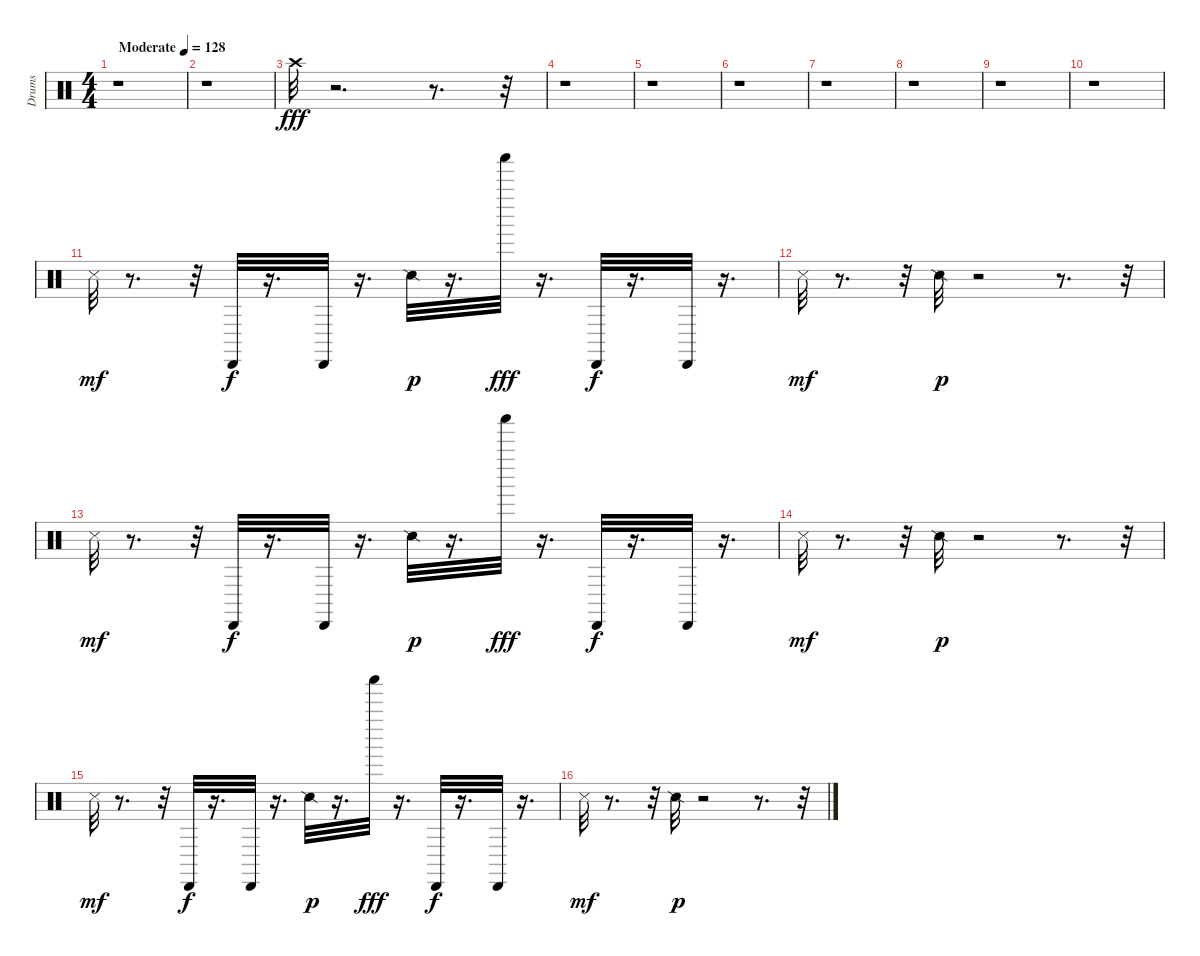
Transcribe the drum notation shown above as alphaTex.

\track ("Drums" "Drums") {instrument percussion}
\staff {score}
\articulation defaults
\ts (4 4)
\tempo (128 "Moderate")
\clef neutral
\ks c
r.1{dy fff} |
r.1 |
"Crash high (hit)".32 r.2{d} r.8{d} r.32 |
r.1 |
r.1 |
r.1 |
r.1 |
r.1 |
r.1 |
r.1 |
"Metronome (hit)".32{dy mf} r.8{d} r.32 "Cabasa (hit)".32{dy f} r.16{d} "Cabasa (hit)".32 r.16{d} "Snare (side stick) 2".32{dy p} r.16{d} "Shaker (hit)".32{dy fff} r.16{d} "Cabasa (hit)".32{dy f} r.16{d} "Cabasa (hit)".32 r.16{d} |
"Metronome (hit)".32{dy mf} r.8{d} r.32 "Snare (side stick) 2".32{dy p} r.2 r.8{d} r.32 |
"Metronome (hit)".32{dy mf} r.8{d} r.32 "Cabasa (hit)".32{dy f} r.16{d} "Cabasa (hit)".32 r.16{d} "Snare (side stick) 2".32{dy p} r.16{d} "Shaker (hit)".32{dy fff} r.16{d} "Cabasa (hit)".32{dy f} r.16{d} "Cabasa (hit)".32 r.16{d} |
"Metronome (hit)".32{dy mf} r.8{d} r.32 "Snare (side stick) 2".32{dy p} r.2 r.8{d} r.32 |
"Metronome (hit)".32{dy mf} r.8{d} r.32 "Cabasa (hit)".32{dy f} r.16{d} "Cabasa (hit)".32 r.16{d} "Snare (side stick) 2".32{dy p} r.16{d} "Shaker (hit)".32{dy fff} r.16{d} "Cabasa (hit)".32{dy f} r.16{d} "Cabasa (hit)".32 r.16{d} |
"Metronome (hit)".32{dy mf} r.8{d} r.32 "Snare (side stick) 2".32{dy p} r.2 r.8{d} r.32
